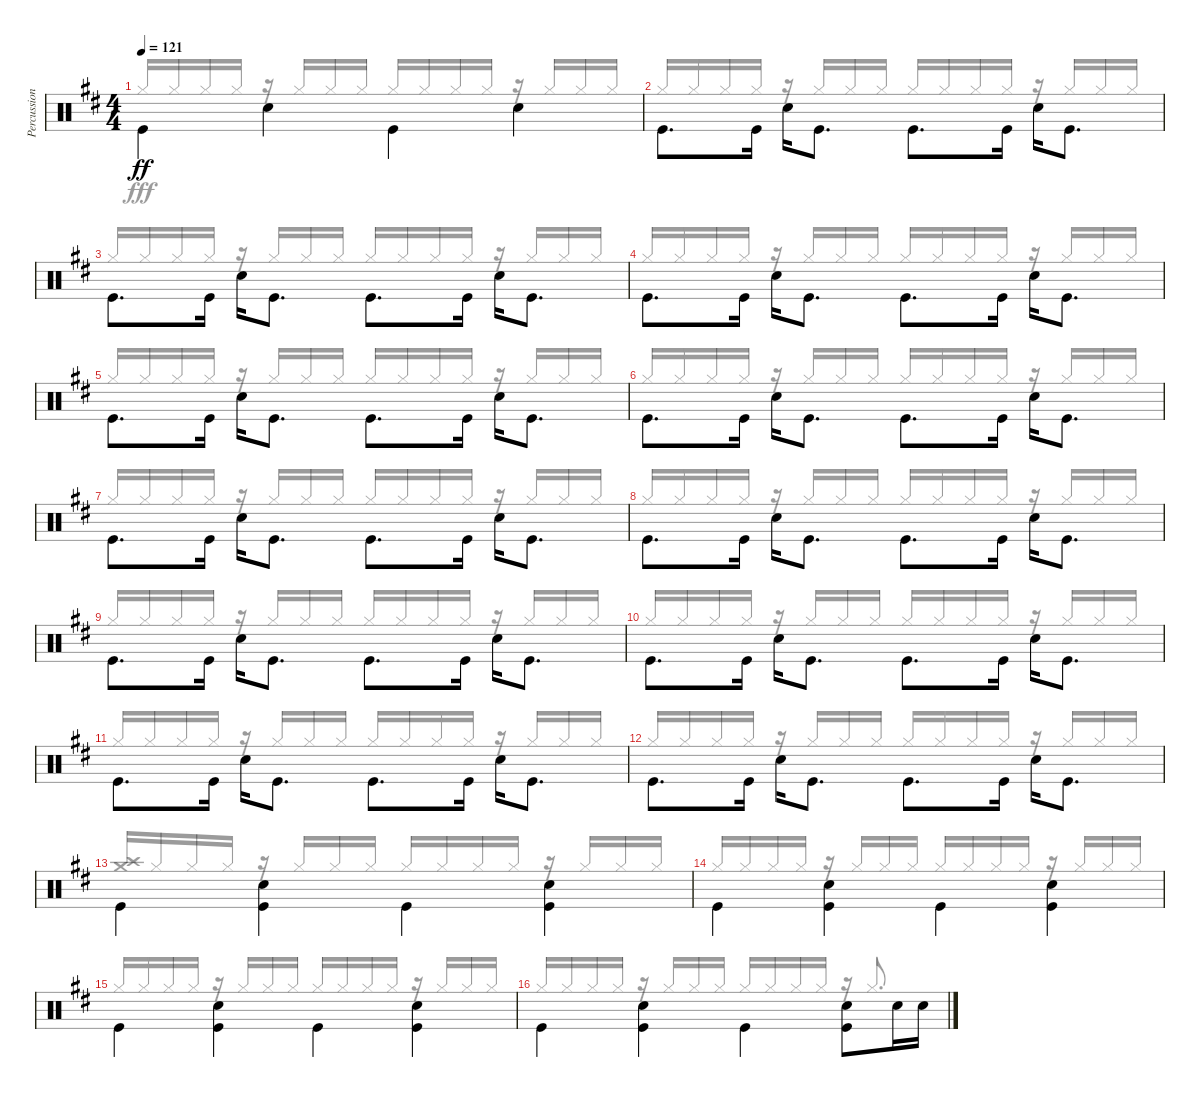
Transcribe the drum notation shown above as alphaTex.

\track ("Percussions" "Percussion") {instrument percussion}
\staff {score}
\articulation defaults
\voice
\ts (4 4)
\tempo 121
\clef neutral
\ks d "Kick (hit)".4{dy ff beam Down} "Snare (hit) 2".4{beam Down} "Kick (hit)".4{beam Down} "Snare (hit) 2".4{beam Down}
|
"Kick (hit)".8{d beam Down} "Kick (hit)".16{beam Down} "Snare (hit) 2".16{beam Down} "Kick (hit)".8{d beam Down} "Kick (hit)".8{d beam Down} "Kick (hit)".16{beam Down} "Snare (hit) 2".16{beam Down} "Kick (hit)".8{d beam Down} |
"Kick (hit)".8{d beam Down} "Kick (hit)".16{beam Down} "Snare (hit) 2".16{beam Down} "Kick (hit)".8{d beam Down} "Kick (hit)".8{d beam Down} "Kick (hit)".16{beam Down} "Snare (hit) 2".16{beam Down} "Kick (hit)".8{d beam Down} |
"Kick (hit)".8{d beam Down} "Kick (hit)".16{beam Down} "Snare (hit) 2".16{beam Down} "Kick (hit)".8{d beam Down} "Kick (hit)".8{d beam Down} "Kick (hit)".16{beam Down} "Snare (hit) 2".16{beam Down} "Kick (hit)".8{d beam Down} |
"Kick (hit)".8{d beam Down} "Kick (hit)".16{beam Down} "Snare (hit) 2".16{beam Down} "Kick (hit)".8{d beam Down} "Kick (hit)".8{d beam Down} "Kick (hit)".16{beam Down} "Snare (hit) 2".16{beam Down} "Kick (hit)".8{d beam Down} |
"Kick (hit)".8{d beam Down} "Kick (hit)".16{beam Down} "Snare (hit) 2".16{beam Down} "Kick (hit)".8{d beam Down} "Kick (hit)".8{d beam Down} "Kick (hit)".16{beam Down} "Snare (hit) 2".16{beam Down} "Kick (hit)".8{d beam Down} |
"Kick (hit)".8{d beam Down} "Kick (hit)".16{beam Down} "Snare (hit) 2".16{beam Down} "Kick (hit)".8{d beam Down} "Kick (hit)".8{d beam Down} "Kick (hit)".16{beam Down} "Snare (hit) 2".16{beam Down} "Kick (hit)".8{d beam Down} |
"Kick (hit)".8{d beam Down} "Kick (hit)".16{beam Down} "Snare (hit) 2".16{beam Down} "Kick (hit)".8{d beam Down} "Kick (hit)".8{d beam Down} "Kick (hit)".16{beam Down} "Snare (hit) 2".16{beam Down} "Kick (hit)".8{d beam Down} |
"Kick (hit)".8{d beam Down} "Kick (hit)".16{beam Down} "Snare (hit) 2".16{beam Down} "Kick (hit)".8{d beam Down} "Kick (hit)".8{d beam Down} "Kick (hit)".16{beam Down} "Snare (hit) 2".16{beam Down} "Kick (hit)".8{d beam Down} |
"Kick (hit)".8{d beam Down} "Kick (hit)".16{beam Down} "Snare (hit) 2".16{beam Down} "Kick (hit)".8{d beam Down} "Kick (hit)".8{d beam Down} "Kick (hit)".16{beam Down} "Snare (hit) 2".16{beam Down} "Kick (hit)".8{d beam Down} |
"Kick (hit)".8{d beam Down} "Kick (hit)".16{beam Down} "Snare (hit) 2".16{beam Down} "Kick (hit)".8{d beam Down} "Kick (hit)".8{d beam Down} "Kick (hit)".16{beam Down} "Snare (hit) 2".16{beam Down} "Kick (hit)".8{d beam Down} |
"Kick (hit)".8{d beam Down} "Kick (hit)".16{beam Down} "Snare (hit) 2".16{beam Down} "Kick (hit)".8{d beam Down} "Kick (hit)".8{d beam Down} "Kick (hit)".16{beam Down} "Snare (hit) 2".16{beam Down} "Kick (hit)".8{d beam Down} |
"Kick (hit)".4{beam Down} ("Snare (hit) 2" "Kick (hit)").4{beam Down} "Kick (hit)".4{beam Down} ("Snare (hit) 2" "Kick (hit)").4{beam Down} |
"Kick (hit)".4{beam Down} ("Snare (hit) 2" "Kick (hit)").4{beam Down} "Kick (hit)".4{beam Down} ("Snare (hit) 2" "Kick (hit)").4{beam Down} |
"Kick (hit)".4{beam Down} ("Snare (hit) 2" "Kick (hit)").4{beam Down} "Kick (hit)".4{beam Down} ("Snare (hit) 2" "Kick (hit)").4{beam Down} |
"Kick (hit)".4{beam Down} ("Snare (hit) 2" "Kick (hit)").4{beam Down} "Kick (hit)".4{beam Down} ("Snare (hit) 2" "Kick (hit)").8{beam Down} "Snare (hit) 2".16{beam Down} "Snare (hit) 2".16{beam Down}
\voice
\clef neutral
\ottava regular
\simile none
\ks d "Hi-Hat (closed)".16{dy fff beam Up} "Hi-Hat (closed)".16{beam Up} "Hi-Hat (closed)".16{beam Up} "Hi-Hat (closed)".16{beam Up}
r.16 "Hi-Hat (closed)".16{beam Up} "Hi-Hat (closed)".16{beam Up} "Hi-Hat (closed)".16{beam Up} "Hi-Hat (closed)".16{beam Up} "Hi-Hat (closed)".16{beam Up} "Hi-Hat (closed)".16{beam Up} "Hi-Hat (closed)".16{beam Up} r.16 "Hi-Hat (closed)".16{beam Up} "Hi-Hat (closed)".16{beam Up} "Hi-Hat (closed)".16{beam Up} |
"Hi-Hat (closed)".16{beam Up} "Hi-Hat (closed)".16{beam Up} "Hi-Hat (closed)".16{beam Up} "Hi-Hat (closed)".16{beam Up} r.16 "Hi-Hat (closed)".16{beam Up} "Hi-Hat (closed)".16{beam Up} "Hi-Hat (closed)".16{beam Up} "Hi-Hat (closed)".16{beam Up} "Hi-Hat (closed)".16{beam Up} "Hi-Hat (closed)".16{beam Up} "Hi-Hat (closed)".16{beam Up} r.16 "Hi-Hat (closed)".16{beam Up} "Hi-Hat (closed)".16{beam Up} "Hi-Hat (closed)".16{beam Up} |
"Hi-Hat (closed)".16{beam Up} "Hi-Hat (closed)".16{beam Up} "Hi-Hat (closed)".16{beam Up} "Hi-Hat (closed)".16{beam Up} r.16 "Hi-Hat (closed)".16{beam Up} "Hi-Hat (closed)".16{beam Up} "Hi-Hat (closed)".16{beam Up} "Hi-Hat (closed)".16{beam Up} "Hi-Hat (closed)".16{beam Up} "Hi-Hat (closed)".16{beam Up} "Hi-Hat (closed)".16{beam Up} r.16 "Hi-Hat (closed)".16{beam Up} "Hi-Hat (closed)".16{beam Up} "Hi-Hat (closed)".16{beam Up} |
"Hi-Hat (closed)".16{beam Up} "Hi-Hat (closed)".16{beam Up} "Hi-Hat (closed)".16{beam Up} "Hi-Hat (closed)".16{beam Up} r.16 "Hi-Hat (closed)".16{beam Up} "Hi-Hat (closed)".16{beam Up} "Hi-Hat (closed)".16{beam Up} "Hi-Hat (closed)".16{beam Up} "Hi-Hat (closed)".16{beam Up} "Hi-Hat (closed)".16{beam Up} "Hi-Hat (closed)".16{beam Up} r.16 "Hi-Hat (closed)".16{beam Up} "Hi-Hat (closed)".16{beam Up} "Hi-Hat (closed)".16{beam Up} |
"Hi-Hat (closed)".16{beam Up} "Hi-Hat (closed)".16{beam Up} "Hi-Hat (closed)".16{beam Up} "Hi-Hat (closed)".16{beam Up} r.16 "Hi-Hat (closed)".16{beam Up} "Hi-Hat (closed)".16{beam Up} "Hi-Hat (closed)".16{beam Up} "Hi-Hat (closed)".16{beam Up} "Hi-Hat (closed)".16{beam Up} "Hi-Hat (closed)".16{beam Up} "Hi-Hat (closed)".16{beam Up} r.16 "Hi-Hat (closed)".16{beam Up} "Hi-Hat (closed)".16{beam Up} "Hi-Hat (closed)".16{beam Up} |
"Hi-Hat (closed)".16{beam Up} "Hi-Hat (closed)".16{beam Up} "Hi-Hat (closed)".16{beam Up} "Hi-Hat (closed)".16{beam Up} r.16 "Hi-Hat (closed)".16{beam Up} "Hi-Hat (closed)".16{beam Up} "Hi-Hat (closed)".16{beam Up} "Hi-Hat (closed)".16{beam Up} "Hi-Hat (closed)".16{beam Up} "Hi-Hat (closed)".16{beam Up} "Hi-Hat (closed)".16{beam Up} r.16 "Hi-Hat (closed)".16{beam Up} "Hi-Hat (closed)".16{beam Up} "Hi-Hat (closed)".16{beam Up} |
"Hi-Hat (closed)".16{beam Up} "Hi-Hat (closed)".16{beam Up} "Hi-Hat (closed)".16{beam Up} "Hi-Hat (closed)".16{beam Up} r.16 "Hi-Hat (closed)".16{beam Up} "Hi-Hat (closed)".16{beam Up} "Hi-Hat (closed)".16{beam Up} "Hi-Hat (closed)".16{beam Up} "Hi-Hat (closed)".16{beam Up} "Hi-Hat (closed)".16{beam Up} "Hi-Hat (closed)".16{beam Up} r.16 "Hi-Hat (closed)".16{beam Up} "Hi-Hat (closed)".16{beam Up} "Hi-Hat (closed)".16{beam Up} |
"Hi-Hat (closed)".16{beam Up} "Hi-Hat (closed)".16{beam Up} "Hi-Hat (closed)".16{beam Up} "Hi-Hat (closed)".16{beam Up} r.16 "Hi-Hat (closed)".16{beam Up} "Hi-Hat (closed)".16{beam Up} "Hi-Hat (closed)".16{beam Up} "Hi-Hat (closed)".16{beam Up} "Hi-Hat (closed)".16{beam Up} "Hi-Hat (closed)".16{beam Up} "Hi-Hat (closed)".16{beam Up} r.16 "Hi-Hat (closed)".16{beam Up} "Hi-Hat (closed)".16{beam Up} "Hi-Hat (closed)".16{beam Up} |
"Hi-Hat (closed)".16{beam Up} "Hi-Hat (closed)".16{beam Up} "Hi-Hat (closed)".16{beam Up} "Hi-Hat (closed)".16{beam Up} r.16 "Hi-Hat (closed)".16{beam Up} "Hi-Hat (closed)".16{beam Up} "Hi-Hat (closed)".16{beam Up} "Hi-Hat (closed)".16{beam Up} "Hi-Hat (closed)".16{beam Up} "Hi-Hat (closed)".16{beam Up} "Hi-Hat (closed)".16{beam Up} r.16 "Hi-Hat (closed)".16{beam Up} "Hi-Hat (closed)".16{beam Up} "Hi-Hat (closed)".16{beam Up} |
"Hi-Hat (closed)".16{beam Up} "Hi-Hat (closed)".16{beam Up} "Hi-Hat (closed)".16{beam Up} "Hi-Hat (closed)".16{beam Up} r.16 "Hi-Hat (closed)".16{beam Up} "Hi-Hat (closed)".16{beam Up} "Hi-Hat (closed)".16{beam Up} "Hi-Hat (closed)".16{beam Up} "Hi-Hat (closed)".16{beam Up} "Hi-Hat (closed)".16{beam Up} "Hi-Hat (closed)".16{beam Up} r.16 "Hi-Hat (closed)".16{beam Up} "Hi-Hat (closed)".16{beam Up} "Hi-Hat (closed)".16{beam Up} |
"Hi-Hat (closed)".16{beam Up} "Hi-Hat (closed)".16{beam Up} "Hi-Hat (closed)".16{beam Up} "Hi-Hat (closed)".16{beam Up} r.16 "Hi-Hat (closed)".16{beam Up} "Hi-Hat (closed)".16{beam Up} "Hi-Hat (closed)".16{beam Up} "Hi-Hat (closed)".16{beam Up} "Hi-Hat (closed)".16{beam Up} "Hi-Hat (closed)".16{beam Up} "Hi-Hat (closed)".16{beam Up} r.16 "Hi-Hat (closed)".16{beam Up} "Hi-Hat (closed)".16{beam Up} "Hi-Hat (closed)".16{beam Up} |
"Hi-Hat (closed)".16{beam Up} "Hi-Hat (closed)".16{beam Up} "Hi-Hat (closed)".16{beam Up} "Hi-Hat (closed)".16{beam Up} r.16 "Hi-Hat (closed)".16{beam Up} "Hi-Hat (closed)".16{beam Up} "Hi-Hat (closed)".16{beam Up} "Hi-Hat (closed)".16{beam Up} "Hi-Hat (closed)".16{beam Up} "Hi-Hat (closed)".16{beam Up} "Hi-Hat (closed)".16{beam Up} r.16 "Hi-Hat (closed)".16{beam Up} "Hi-Hat (closed)".16{beam Up} "Hi-Hat (closed)".16{beam Up} |
("Crash medium (hit)" "Crash high (hit)").16{beam Up} "Hi-Hat (closed)".16{beam Up} "Hi-Hat (closed)".16{beam Up} "Hi-Hat (closed)".16{beam Up} r.16 "Hi-Hat (closed)".16{beam Up} "Hi-Hat (closed)".16{beam Up} "Hi-Hat (closed)".16{beam Up} "Hi-Hat (closed)".16{beam Up} "Hi-Hat (closed)".16{beam Up} "Hi-Hat (closed)".16{beam Up} "Hi-Hat (closed)".16{beam Up} r.16 "Hi-Hat (closed)".16{beam Up} "Hi-Hat (closed)".16{beam Up} "Hi-Hat (closed)".16{beam Up} |
"Hi-Hat (closed)".16{beam Up} "Hi-Hat (closed)".16{beam Up} "Hi-Hat (closed)".16{beam Up} "Hi-Hat (closed)".16{beam Up} r.16 "Hi-Hat (closed)".16{beam Up} "Hi-Hat (closed)".16{beam Up} "Hi-Hat (closed)".16{beam Up} "Hi-Hat (closed)".16{beam Up} "Hi-Hat (closed)".16{beam Up} "Hi-Hat (closed)".16{beam Up} "Hi-Hat (closed)".16{beam Up} r.16 "Hi-Hat (closed)".16{beam Up} "Hi-Hat (closed)".16{beam Up} "Hi-Hat (closed)".16{beam Up} |
"Hi-Hat (closed)".16{beam Up} "Hi-Hat (closed)".16{beam Up} "Hi-Hat (closed)".16{beam Up} "Hi-Hat (closed)".16{beam Up} r.16 "Hi-Hat (closed)".16{beam Up} "Hi-Hat (closed)".16{beam Up} "Hi-Hat (closed)".16{beam Up} "Hi-Hat (closed)".16{beam Up} "Hi-Hat (closed)".16{beam Up} "Hi-Hat (closed)".16{beam Up} "Hi-Hat (closed)".16{beam Up} r.16 "Hi-Hat (closed)".16{beam Up} "Hi-Hat (closed)".16{beam Up} "Hi-Hat (closed)".16{beam Up} |
"Hi-Hat (closed)".16{beam Up} "Hi-Hat (closed)".16{beam Up} "Hi-Hat (closed)".16{beam Up} "Hi-Hat (closed)".16{beam Up} r.16 "Hi-Hat (closed)".16{beam Up} "Hi-Hat (closed)".16{beam Up} "Hi-Hat (closed)".16{beam Up} "Hi-Hat (closed)".16{beam Up} "Hi-Hat (closed)".16{beam Up} "Hi-Hat (closed)".16{beam Up} "Hi-Hat (closed)".16{beam Up} r.16 "Hi-Hat (closed)".8{d beam Up}
